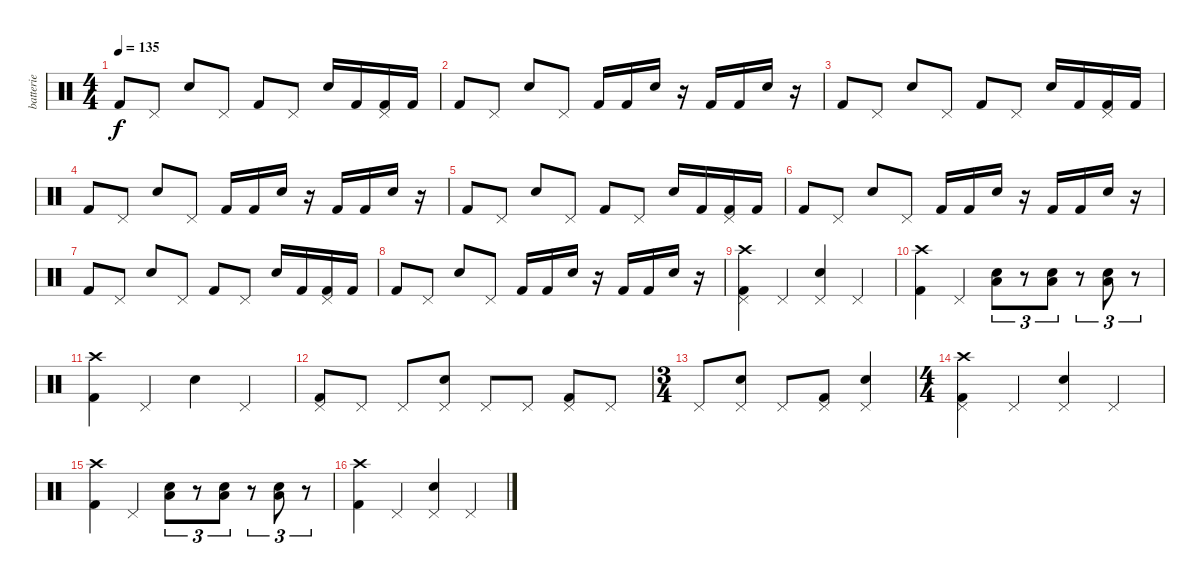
\track ("batterie" "batterie") {instrument percussion}
\staff {score}
\articulation defaults
\ts (4 4)
\tempo 135
\clef neutral
\ks c "Kick (hit) 2".8{dy f} "Pedal Hi-Hat (hit)".8 "Snare (hit) 2".8 "Pedal Hi-Hat (hit)".8 "Kick (hit) 2".8 "Pedal Hi-Hat (hit)".8 "Snare (hit) 2".16 "Kick (hit) 2".16
("Kick (hit) 2" "Pedal Hi-Hat (hit)").16 "Kick (hit) 2".16 |
"Kick (hit) 2".8 "Pedal Hi-Hat (hit)".8 "Snare (hit) 2".8 "Pedal Hi-Hat (hit)".8 "Kick (hit) 2".16 "Kick (hit) 2".16 "Snare (hit) 2".16 r.16 "Kick (hit) 2".16 "Kick (hit) 2".16 "Snare (hit) 2".16 r.16 |
"Kick (hit) 2".8 "Pedal Hi-Hat (hit)".8 "Snare (hit) 2".8 "Pedal Hi-Hat (hit)".8 "Kick (hit) 2".8 "Pedal Hi-Hat (hit)".8 "Snare (hit) 2".16 "Kick (hit) 2".16 ("Kick (hit) 2" "Pedal Hi-Hat (hit)").16 "Kick (hit) 2".16 |
"Kick (hit) 2".8 "Pedal Hi-Hat (hit)".8 "Snare (hit) 2".8 "Pedal Hi-Hat (hit)".8 "Kick (hit) 2".16 "Kick (hit) 2".16 "Snare (hit) 2".16 r.16 "Kick (hit) 2".16 "Kick (hit) 2".16 "Snare (hit) 2".16 r.16 |
"Kick (hit) 2".8 "Pedal Hi-Hat (hit)".8 "Snare (hit) 2".8 "Pedal Hi-Hat (hit)".8 "Kick (hit) 2".8 "Pedal Hi-Hat (hit)".8 "Snare (hit) 2".16 "Kick (hit) 2".16 ("Kick (hit) 2" "Pedal Hi-Hat (hit)").16 "Kick (hit) 2".16 |
"Kick (hit) 2".8 "Pedal Hi-Hat (hit)".8 "Snare (hit) 2".8 "Pedal Hi-Hat (hit)".8 "Kick (hit) 2".16 "Kick (hit) 2".16 "Snare (hit) 2".16 r.16 "Kick (hit) 2".16 "Kick (hit) 2".16 "Snare (hit) 2".16 r.16 |
"Kick (hit) 2".8 "Pedal Hi-Hat (hit)".8 "Snare (hit) 2".8 "Pedal Hi-Hat (hit)".8 "Kick (hit) 2".8 "Pedal Hi-Hat (hit)".8 "Snare (hit) 2".16 "Kick (hit) 2".16 ("Kick (hit) 2" "Pedal Hi-Hat (hit)").16 "Kick (hit) 2".16 |
"Kick (hit) 2".8 "Pedal Hi-Hat (hit)".8 "Snare (hit) 2".8 "Pedal Hi-Hat (hit)".8 "Kick (hit) 2".16 "Kick (hit) 2".16 "Snare (hit) 2".16 r.16 "Kick (hit) 2".16 "Kick (hit) 2".16 "Snare (hit) 2".16 r.16 |
("Crash high (hit)" "Kick (hit) 2" "Pedal Hi-Hat (hit)").4 "Pedal Hi-Hat (hit)".4 ("Snare (hit) 2" "Pedal Hi-Hat (hit)").4 "Pedal Hi-Hat (hit)".4 |
("Crash high (hit)" "Kick (hit) 2").4 "Pedal Hi-Hat (hit)".4 ("Low Tom (hit)" "Snare (hit) 2").8{tu (3 2)} r.8{tu (3 2)} ("Low Tom (hit)" "Snare (hit) 2").8{tu (3 2)} r.8{tu (3 2)} ("Low Tom (hit)" "Snare (hit) 2").8{tu (3 2)} r.8{tu (3 2)} |
("Crash high (hit)" "Kick (hit) 2").4 "Pedal Hi-Hat (hit)".4 "Snare (hit) 2".4 "Pedal Hi-Hat (hit)".4 |
("Kick (hit) 2" "Pedal Hi-Hat (hit)").8 "Pedal Hi-Hat (hit)".8 "Pedal Hi-Hat (hit)".8 ("Snare (hit) 2" "Pedal Hi-Hat (hit)").8 "Pedal Hi-Hat (hit)".8 "Pedal Hi-Hat (hit)".8 ("Kick (hit) 2" "Pedal Hi-Hat (hit)").8 "Pedal Hi-Hat (hit)".8 |
\ts (3 4)
"Pedal Hi-Hat (hit)".8 ("Snare (hit) 2" "Pedal Hi-Hat (hit)").8 "Pedal Hi-Hat (hit)".8 ("Kick (hit) 2" "Pedal Hi-Hat (hit)").8 ("Snare (hit) 2" "Pedal Hi-Hat (hit)").4 |
\ts (4 4)
("Crash high (hit)" "Kick (hit) 2" "Pedal Hi-Hat (hit)").4 "Pedal Hi-Hat (hit)".4 ("Snare (hit) 2" "Pedal Hi-Hat (hit)").4 "Pedal Hi-Hat (hit)".4 |
("Crash high (hit)" "Kick (hit) 2").4 "Pedal Hi-Hat (hit)".4 ("Low Tom (hit)" "Snare (hit) 2").8{tu (3 2)} r.8{tu (3 2)} ("Low Tom (hit)" "Snare (hit) 2").8{tu (3 2)} r.8{tu (3 2)} ("Low Tom (hit)" "Snare (hit) 2").8{tu (3 2)} r.8{tu (3 2)} |
("Crash high (hit)" "Kick (hit) 2").4 "Pedal Hi-Hat (hit)".4 ("Snare (hit) 2" "Pedal Hi-Hat (hit)").4 "Pedal Hi-Hat (hit)".4
